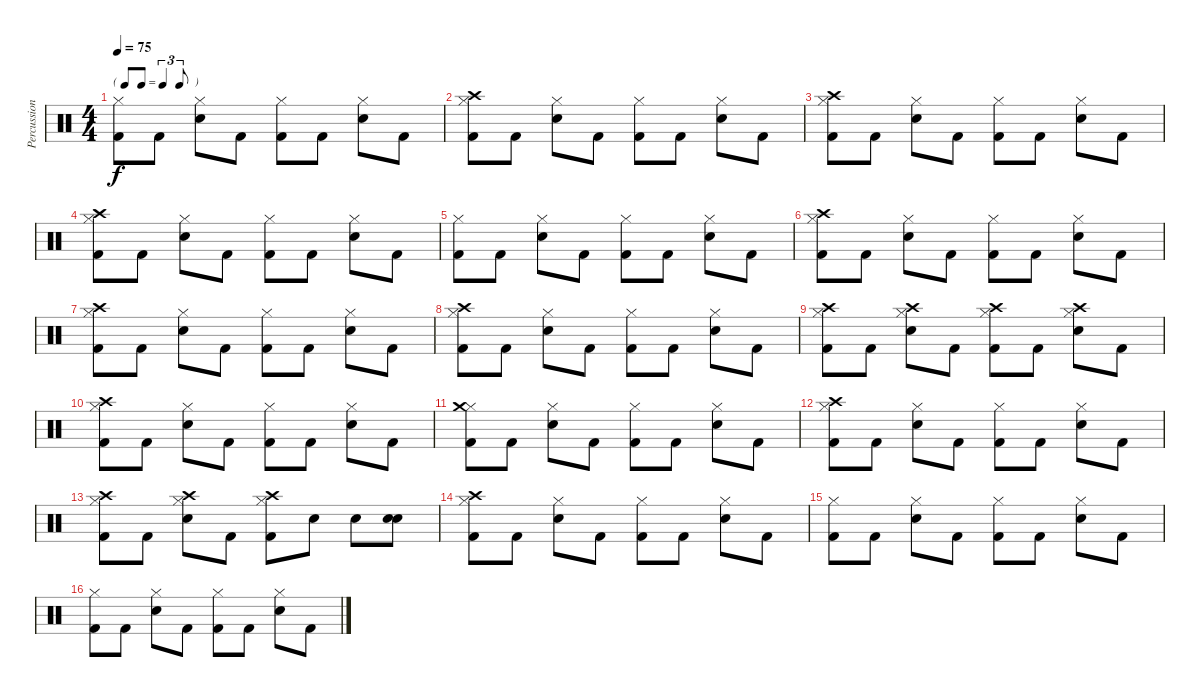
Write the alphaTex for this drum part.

\track ("Percussions" "Percussion") {instrument percussion}
\staff {score}
\articulation defaults
\ts (4 4)
\tf triplet8th
\tempo 75
\clef neutral
\ks c
("Hi-Hat (closed)" "Kick (hit) 2").8{dy f} "Kick (hit) 2".8 ("Hi-Hat (closed)" "Snare (hit) 2").8 "Kick (hit) 2".8 ("Hi-Hat (closed)" "Kick (hit) 2").8 "Kick (hit) 2".8 ("Hi-Hat (closed)" "Snare (hit) 2").8 "Kick (hit) 2".8 |
("Hi-Hat (closed)" "Crash high (hit)" "Kick (hit) 2").8 "Kick (hit) 2".8 ("Hi-Hat (closed)" "Snare (hit) 2").8 "Kick (hit) 2".8 ("Hi-Hat (closed)" "Kick (hit) 2").8 "Kick (hit) 2".8 ("Hi-Hat (closed)" "Snare (hit) 2").8 "Kick (hit) 2".8 |
("Hi-Hat (closed)" "Crash high (hit)" "Kick (hit) 2").8 "Kick (hit) 2".8 ("Hi-Hat (closed)" "Snare (hit) 2").8 "Kick (hit) 2".8 ("Hi-Hat (closed)" "Kick (hit) 2").8 "Kick (hit) 2".8 ("Hi-Hat (closed)" "Snare (hit) 2").8 "Kick (hit) 2".8 |
("Hi-Hat (closed)" "Crash high (hit)" "Kick (hit) 2").8 "Kick (hit) 2".8 ("Hi-Hat (closed)" "Snare (hit) 2").8 "Kick (hit) 2".8 ("Hi-Hat (closed)" "Kick (hit) 2").8 "Kick (hit) 2".8 ("Hi-Hat (closed)" "Snare (hit) 2").8 "Kick (hit) 2".8 |
("Hi-Hat (closed)" "Kick (hit) 2").8 "Kick (hit) 2".8 ("Hi-Hat (closed)" "Snare (hit) 2").8 "Kick (hit) 2".8 ("Hi-Hat (closed)" "Kick (hit) 2").8 "Kick (hit) 2".8 ("Hi-Hat (closed)" "Snare (hit) 2").8 "Kick (hit) 2".8 |
("Hi-Hat (closed)" "Crash high (hit)" "Kick (hit) 2").8 "Kick (hit) 2".8 ("Hi-Hat (closed)" "Snare (hit) 2").8 "Kick (hit) 2".8 ("Hi-Hat (closed)" "Kick (hit) 2").8 "Kick (hit) 2".8 ("Hi-Hat (closed)" "Snare (hit) 2").8 "Kick (hit) 2".8 |
("Hi-Hat (closed)" "Crash high (hit)" "Kick (hit) 2").8 "Kick (hit) 2".8 ("Hi-Hat (closed)" "Snare (hit) 2").8 "Kick (hit) 2".8 ("Hi-Hat (closed)" "Kick (hit) 2").8 "Kick (hit) 2".8 ("Hi-Hat (closed)" "Snare (hit) 2").8 "Kick (hit) 2".8 |
("Hi-Hat (closed)" "Crash high (hit)" "Kick (hit) 2").8 "Kick (hit) 2".8 ("Hi-Hat (closed)" "Snare (hit) 2").8 "Kick (hit) 2".8 ("Hi-Hat (closed)" "Kick (hit) 2").8 "Kick (hit) 2".8 ("Hi-Hat (closed)" "Snare (hit) 2").8 "Kick (hit) 2".8 |
("Hi-Hat (closed)" "Crash high (hit)" "Kick (hit) 2").8 "Kick (hit) 2".8 ("Hi-Hat (closed)" "Crash high (hit)" "Snare (hit) 2").8 "Kick (hit) 2".8 ("Hi-Hat (closed)" "Crash high (hit)" "Kick (hit) 2").8 "Kick (hit) 2".8 ("Hi-Hat (closed)" "Crash high (hit)" "Snare (hit) 2").8 "Kick (hit) 2".8 |
("Hi-Hat (closed)" "Crash high (hit)" "Kick (hit) 2").8 "Kick (hit) 2".8 ("Hi-Hat (closed)" "Snare (hit) 2").8 "Kick (hit) 2".8 ("Hi-Hat (closed)" "Kick (hit) 2").8 "Kick (hit) 2".8 ("Hi-Hat (closed)" "Snare (hit) 2").8 "Kick (hit) 2".8 |
("Hi-Hat (closed)" "Crash medium (hit)" "Kick (hit) 2").8 "Kick (hit) 2".8 ("Hi-Hat (closed)" "Snare (hit) 2").8 "Kick (hit) 2".8 ("Hi-Hat (closed)" "Kick (hit) 2").8 "Kick (hit) 2".8 ("Hi-Hat (closed)" "Snare (hit) 2").8 "Kick (hit) 2".8 |
("Hi-Hat (closed)" "Crash high (hit)" "Kick (hit) 2").8 "Kick (hit) 2".8 ("Hi-Hat (closed)" "Snare (hit) 2").8 "Kick (hit) 2".8 ("Hi-Hat (closed)" "Kick (hit) 2").8 "Kick (hit) 2".8 ("Hi-Hat (closed)" "Snare (hit) 2").8 "Kick (hit) 2".8 |
("Hi-Hat (closed)" "Crash high (hit)" "Kick (hit) 2").8 "Kick (hit) 2".8 ("Hi-Hat (closed)" "Crash high (hit)" "Snare (hit) 2").8 "Kick (hit) 2".8 ("Hi-Hat (closed)" "Crash high (hit)" "Kick (hit) 2").8 "Snare (hit) 2".8 "Snare (hit) 2".8 ("Snare (hit) 2" "Snare (hit) 2").8 |
("Hi-Hat (closed)" "Crash high (hit)" "Kick (hit) 2").8 "Kick (hit) 2".8 ("Hi-Hat (closed)" "Snare (hit) 2").8 "Kick (hit) 2".8 ("Hi-Hat (closed)" "Kick (hit) 2").8 "Kick (hit) 2".8 ("Hi-Hat (closed)" "Snare (hit) 2").8 "Kick (hit) 2".8 |
("Hi-Hat (closed)" "Kick (hit) 2").8 "Kick (hit) 2".8 ("Hi-Hat (closed)" "Snare (hit) 2").8 "Kick (hit) 2".8 ("Hi-Hat (closed)" "Kick (hit) 2").8 "Kick (hit) 2".8 ("Hi-Hat (closed)" "Snare (hit) 2").8 "Kick (hit) 2".8 |
("Hi-Hat (closed)" "Kick (hit) 2").8 "Kick (hit) 2".8 ("Hi-Hat (closed)" "Snare (hit) 2").8 "Kick (hit) 2".8 ("Hi-Hat (closed)" "Kick (hit) 2").8 "Kick (hit) 2".8 ("Hi-Hat (closed)" "Snare (hit) 2").8 "Kick (hit) 2".8
